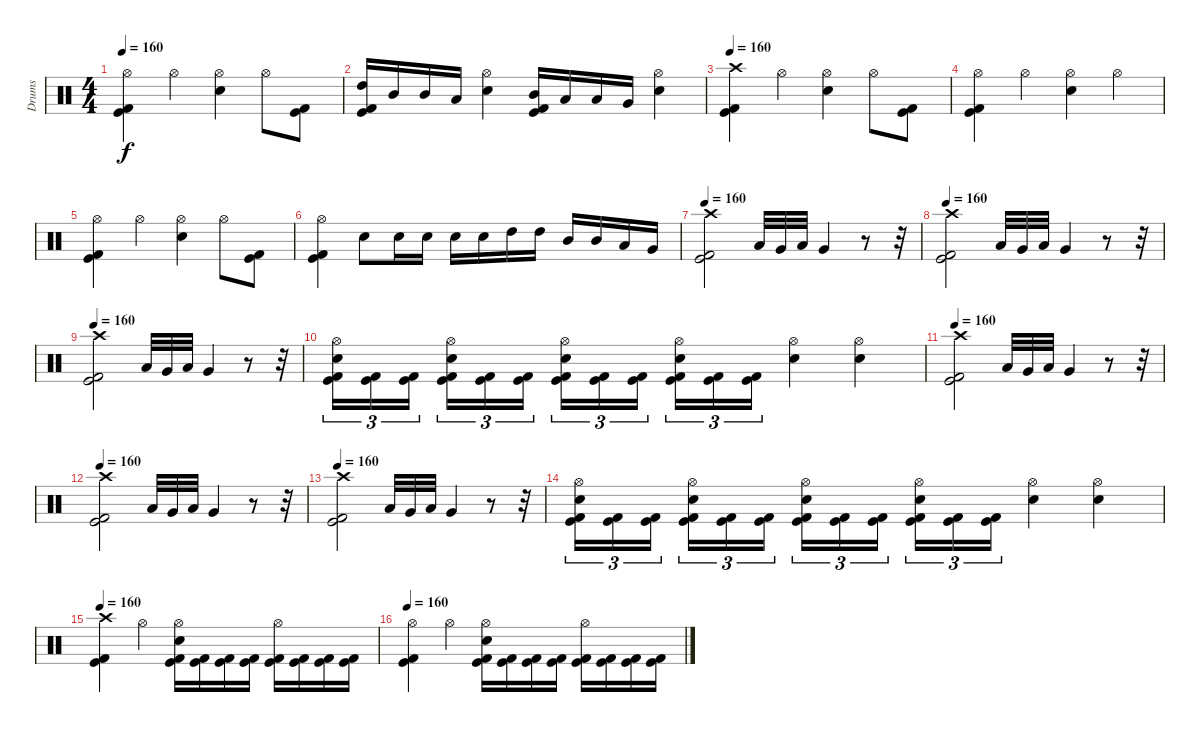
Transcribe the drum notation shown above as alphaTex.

\track ("Drums" "Drums") {instrument percussion}
\staff {score}
\articulation defaults
\ts (4 4)
\tempo 160
\clef neutral
\ks c
("Hi-Hat (open)" "Kick (hit)" "Kick (hit) 2").4{dy f} "Hi-Hat (open)".4 ("Hi-Hat (open)" "Electric Snare (hit)").4 "Hi-Hat (open)".8 ("Kick (hit)" "Kick (hit) 2").8 |
("High Tom (hit)" "Kick (hit)" "Kick (hit) 2").16 "Mid Tom (hit)".16 "Mid Tom (hit)".16 "Low Tom (hit)".16 ("Hi-Hat (open)" "Electric Snare (hit)").4 ("Mid Tom (hit)" "Kick (hit)" "Kick (hit) 2").16 "Low Tom (hit)".16 "Low Tom (hit)".16 "Very Low Tom (hit)".16 ("Hi-Hat (open)" "Electric Snare (hit)").4 |
\tempo 160
("Crash high (hit)" "Kick (hit)" "Kick (hit) 2").4 "Hi-Hat (open)".4 ("Hi-Hat (open)" "Electric Snare (hit)").4 "Hi-Hat (open)".8 ("Kick (hit)" "Kick (hit) 2").8 |
("Hi-Hat (open)" "Kick (hit)" "Kick (hit) 2").4 "Hi-Hat (open)".4 ("Hi-Hat (open)" "Electric Snare (hit)").4 "Hi-Hat (open)".4 |
("Hi-Hat (open)" "Kick (hit)" "Kick (hit) 2").4 "Hi-Hat (open)".4 ("Hi-Hat (open)" "Electric Snare (hit)").4 "Hi-Hat (open)".8 ("Kick (hit)" "Kick (hit) 2").8 |
("Hi-Hat (open)" "Kick (hit)" "Kick (hit) 2").4 "Electric Snare (hit)".8 "Electric Snare (hit)".16 "Electric Snare (hit)".16 "Electric Snare (hit)".16 "Electric Snare (hit)".16 "High Tom (hit)".16 "High Tom (hit)".16 "Mid Tom (hit)".16 "Mid Tom (hit)".16 "Low Tom (hit)".16 "Very Low Tom (hit)".16 |
\tempo 160
("Crash high (hit)" "Kick (hit)" "Kick (hit) 2").2 "Low Tom (hit)".32 "Very Low Tom (hit)".32 "Low Tom (hit)".32 "Very Low Tom (hit)".4 r.8 r.32 |
\tempo 160
("Crash high (hit)" "Kick (hit)" "Kick (hit) 2").2 "Low Tom (hit)".32 "Very Low Tom (hit)".32 "Low Tom (hit)".32 "Very Low Tom (hit)".4 r.8 r.32 |
\tempo 160
("Crash high (hit)" "Kick (hit)" "Kick (hit) 2").2 "Low Tom (hit)".32 "Very Low Tom (hit)".32 "Low Tom (hit)".32 "Very Low Tom (hit)".4 r.8 r.32 |
("Hi-Hat (open)" "Electric Snare (hit)" "Kick (hit)" "Kick (hit) 2").16{tu (3 2)} ("Kick (hit)" "Kick (hit) 2").16{tu (3 2)} ("Kick (hit)" "Kick (hit) 2").16{tu (3 2)} ("Hi-Hat (open)" "Electric Snare (hit)" "Kick (hit)" "Kick (hit) 2").16{tu (3 2)} ("Kick (hit)" "Kick (hit) 2").16{tu (3 2)} ("Kick (hit)" "Kick (hit) 2").16{tu (3 2)} ("Hi-Hat (open)" "Electric Snare (hit)" "Kick (hit)" "Kick (hit) 2").16{tu (3 2)} ("Kick (hit)" "Kick (hit) 2").16{tu (3 2)} ("Kick (hit)" "Kick (hit) 2").16{tu (3 2)} ("Hi-Hat (open)" "Electric Snare (hit)" "Kick (hit)" "Kick (hit) 2").16{tu (3 2)} ("Kick (hit)" "Kick (hit) 2").16{tu (3 2)} ("Kick (hit)" "Kick (hit) 2").16{tu (3 2)} ("Hi-Hat (open)" "Electric Snare (hit)").4 ("Hi-Hat (open)" "Electric Snare (hit)").4 |
\tempo 160
("Crash high (hit)" "Kick (hit)" "Kick (hit) 2").2 "Low Tom (hit)".32 "Very Low Tom (hit)".32 "Low Tom (hit)".32 "Very Low Tom (hit)".4 r.8 r.32 |
\tempo 160
("Crash high (hit)" "Kick (hit)" "Kick (hit) 2").2 "Low Tom (hit)".32 "Very Low Tom (hit)".32 "Low Tom (hit)".32 "Very Low Tom (hit)".4 r.8 r.32 |
\tempo 160
("Crash high (hit)" "Kick (hit)" "Kick (hit) 2").2 "Low Tom (hit)".32 "Very Low Tom (hit)".32 "Low Tom (hit)".32 "Very Low Tom (hit)".4 r.8 r.32 |
("Hi-Hat (open)" "Electric Snare (hit)" "Kick (hit)" "Kick (hit) 2").16{tu (3 2)} ("Kick (hit)" "Kick (hit) 2").16{tu (3 2)} ("Kick (hit)" "Kick (hit) 2").16{tu (3 2)} ("Hi-Hat (open)" "Electric Snare (hit)" "Kick (hit)" "Kick (hit) 2").16{tu (3 2)} ("Kick (hit)" "Kick (hit) 2").16{tu (3 2)} ("Kick (hit)" "Kick (hit) 2").16{tu (3 2)} ("Hi-Hat (open)" "Electric Snare (hit)" "Kick (hit)" "Kick (hit) 2").16{tu (3 2)} ("Kick (hit)" "Kick (hit) 2").16{tu (3 2)} ("Kick (hit)" "Kick (hit) 2").16{tu (3 2)} ("Hi-Hat (open)" "Electric Snare (hit)" "Kick (hit)" "Kick (hit) 2").16{tu (3 2)} ("Kick (hit)" "Kick (hit) 2").16{tu (3 2)} ("Kick (hit)" "Kick (hit) 2").16{tu (3 2)} ("Hi-Hat (open)" "Electric Snare (hit)").4 ("Hi-Hat (open)" "Electric Snare (hit)").4 |
\tempo 160
("Crash high (hit)" "Kick (hit)" "Kick (hit) 2").4 "Hi-Hat (open)".4 ("Hi-Hat (open)" "Electric Snare (hit)" "Kick (hit)" "Kick (hit) 2").16 ("Kick (hit)" "Kick (hit) 2").16 ("Kick (hit)" "Kick (hit) 2").16 ("Kick (hit)" "Kick (hit) 2").16 ("Hi-Hat (open)" "Kick (hit)" "Kick (hit) 2").16 ("Kick (hit)" "Kick (hit) 2").16 ("Kick (hit)" "Kick (hit) 2").16 ("Kick (hit)" "Kick (hit) 2").16 |
\tempo 160
("Hi-Hat (open)" "Kick (hit)" "Kick (hit) 2").4 "Hi-Hat (open)".4 ("Hi-Hat (open)" "Electric Snare (hit)" "Kick (hit)" "Kick (hit) 2").16 ("Kick (hit)" "Kick (hit) 2").16 ("Kick (hit)" "Kick (hit) 2").16 ("Kick (hit)" "Kick (hit) 2").16 ("Hi-Hat (open)" "Kick (hit)" "Kick (hit) 2").16 ("Kick (hit)" "Kick (hit) 2").16 ("Kick (hit)" "Kick (hit) 2").16 ("Kick (hit)" "Kick (hit) 2").16
